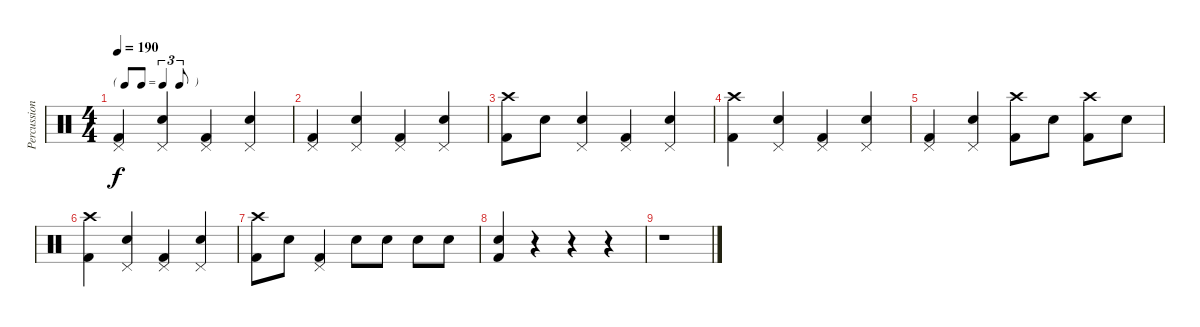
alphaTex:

\track ("Percussion" "Percussion") {instrument percussion}
\staff {score}
\articulation defaults
\ts (4 4)
\tf triplet8th
\tempo 190
\clef neutral
\ks c
("Pedal Hi-Hat (hit)" "Kick (hit) 2").4{dy f} ("Pedal Hi-Hat (hit)" "Electric Snare (hit)").4 ("Pedal Hi-Hat (hit)" "Kick (hit) 2").4 ("Pedal Hi-Hat (hit)" "Electric Snare (hit)").4 |
("Pedal Hi-Hat (hit)" "Kick (hit) 2").4 ("Pedal Hi-Hat (hit)" "Electric Snare (hit)").4 ("Pedal Hi-Hat (hit)" "Kick (hit) 2").4 ("Pedal Hi-Hat (hit)" "Electric Snare (hit)").4 |
("Crash high (hit)" "Kick (hit) 2").8 "Electric Snare (hit)".8 ("Pedal Hi-Hat (hit)" "Electric Snare (hit)").4 ("Pedal Hi-Hat (hit)" "Kick (hit) 2").4 ("Pedal Hi-Hat (hit)" "Electric Snare (hit)").4 |
("Crash high (hit)" "Kick (hit) 2").4 ("Pedal Hi-Hat (hit)" "Electric Snare (hit)").4 ("Pedal Hi-Hat (hit)" "Kick (hit) 2").4 ("Pedal Hi-Hat (hit)" "Electric Snare (hit)").4 |
("Pedal Hi-Hat (hit)" "Kick (hit) 2").4 ("Pedal Hi-Hat (hit)" "Electric Snare (hit)").4 ("Crash high (hit)" "Kick (hit) 2").8 "Electric Snare (hit)".8 ("Crash high (hit)" "Kick (hit) 2").8 "Electric Snare (hit)".8 |
("Crash high (hit)" "Kick (hit) 2").4 ("Pedal Hi-Hat (hit)" "Electric Snare (hit)").4 ("Pedal Hi-Hat (hit)" "Kick (hit) 2").4 ("Pedal Hi-Hat (hit)" "Electric Snare (hit)").4 |
("Crash high (hit)" "Kick (hit) 2").8 "Electric Snare (hit)".8 ("Pedal Hi-Hat (hit)" "Kick (hit) 2").4 "Electric Snare (hit)".8 "Electric Snare (hit)".8 "Electric Snare (hit)".8 "Electric Snare (hit)".8 |
("Electric Snare (hit)" "Kick (hit) 2").4 r.4 r.4 r.4 |
r.1
